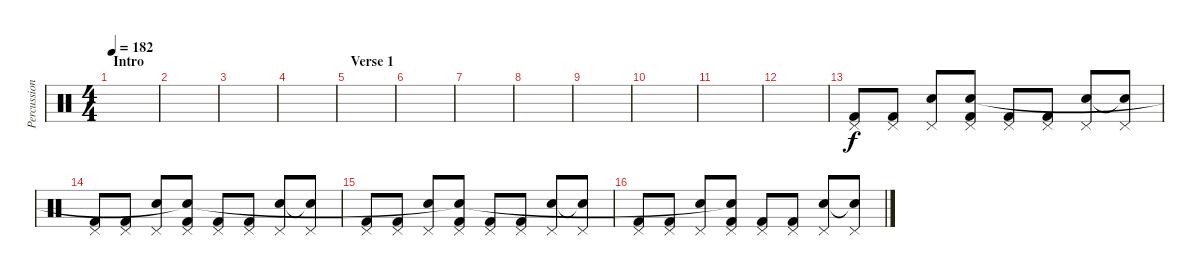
\track ("Percussion" "Percussion") {instrument percussion}
\staff {score}
\articulation defaults
\ts (4 4)
\section ("" "Intro")
\tempo 182
\clef neutral
\ks c
|
|
|
|
\section ("" "Verse 1")
|
|
|
|
|
|
|
|
("Pedal Hi-Hat (hit)" "Kick (hit) 2").8 ("Pedal Hi-Hat (hit)" "Kick (hit) 2").8 ("Pedal Hi-Hat (hit)" "Electric Snare (hit)").8 ("Pedal Hi-Hat (hit)" "Kick (hit) 2" "Snare (hit)").8 ("Pedal Hi-Hat (hit)" "Kick (hit) 2").8 ("Pedal Hi-Hat (hit)" "Kick (hit) 2").8 ("Pedal Hi-Hat (hit)" "Electric Snare (hit)").8 ("Pedal Hi-Hat (hit)" "Snare (hit)"{t}).8 |
("Pedal Hi-Hat (hit)" "Kick (hit) 2").8 ("Pedal Hi-Hat (hit)" "Kick (hit) 2").8 ("Pedal Hi-Hat (hit)" "Electric Snare (hit)").8 ("Pedal Hi-Hat (hit)" "Kick (hit) 2" "Snare (hit)"{t}).8 ("Pedal Hi-Hat (hit)" "Kick (hit) 2").8 ("Pedal Hi-Hat (hit)" "Kick (hit) 2").8 ("Pedal Hi-Hat (hit)" "Electric Snare (hit)").8 ("Pedal Hi-Hat (hit)" "Snare (hit)"{t}).8 |
("Pedal Hi-Hat (hit)" "Kick (hit) 2").8 ("Pedal Hi-Hat (hit)" "Kick (hit) 2").8 ("Pedal Hi-Hat (hit)" "Electric Snare (hit)").8 ("Pedal Hi-Hat (hit)" "Kick (hit) 2" "Snare (hit)"{t}).8 ("Pedal Hi-Hat (hit)" "Kick (hit) 2").8 ("Pedal Hi-Hat (hit)" "Kick (hit) 2").8 ("Pedal Hi-Hat (hit)" "Electric Snare (hit)").8 ("Pedal Hi-Hat (hit)" "Snare (hit)"{t}).8 |
("Pedal Hi-Hat (hit)" "Kick (hit) 2").8 ("Pedal Hi-Hat (hit)" "Kick (hit) 2").8 ("Pedal Hi-Hat (hit)" "Electric Snare (hit)").8 ("Pedal Hi-Hat (hit)" "Kick (hit) 2" "Snare (hit)"{t}).8 ("Pedal Hi-Hat (hit)" "Kick (hit) 2").8 ("Pedal Hi-Hat (hit)" "Kick (hit) 2").8 ("Pedal Hi-Hat (hit)" "Electric Snare (hit)").8 ("Pedal Hi-Hat (hit)" "Snare (hit)"{t}).8
